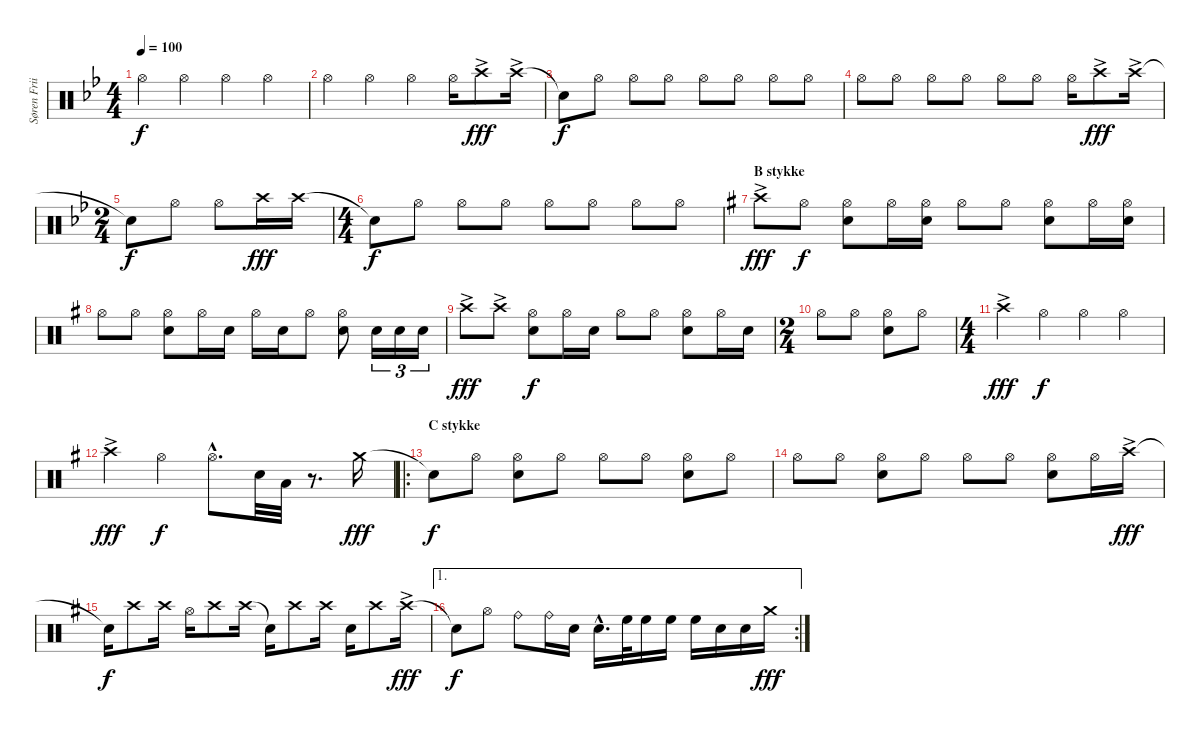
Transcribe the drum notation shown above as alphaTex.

\track ("Søren Friis (Drums)" "Søren Frii") {instrument percussion}
\staff {score}
\articulation defaults
\ts (4 4)
\tempo 100
\clef neutral
\ks bb "Hi-Hat (open)".4{dy f} "Hi-Hat (open)".4 "Hi-Hat (open)".4 "Hi-Hat (open)".4
|
"Hi-Hat (open)".4 "Hi-Hat (open)".4 "Hi-Hat (open)".4 "Hi-Hat (open)".16 "Crash high (hit)"{ac}.8{dy fff} "Crash high (hit)"{ac}.16 |
"Snare (hit)"{t}.8{dy f} "Hi-Hat (open)".8 "Hi-Hat (open)".8 "Hi-Hat (open)".8 "Hi-Hat (open)".8 "Hi-Hat (open)".8 "Hi-Hat (open)".8 "Hi-Hat (open)".8 |
"Hi-Hat (open)".8 "Hi-Hat (open)".8 "Hi-Hat (open)".8 "Hi-Hat (open)".8 "Hi-Hat (open)".8 "Hi-Hat (open)".8 "Hi-Hat (open)".16 "Crash high (hit)"{ac}.8{dy fff} "Crash high (hit)"{ac}.16 |
\ts (2 4)
"Snare (hit)"{t}.8{dy f} "Hi-Hat (open)".8 "Hi-Hat (open)".8 "Crash high (hit)".16{dy fff} "Crash high (hit)".16 |
\ts (4 4)
"Snare (hit)"{t}.8{dy f} "Hi-Hat (open)".8 "Hi-Hat (open)".8 "Hi-Hat (open)".8 "Hi-Hat (open)".8 "Hi-Hat (open)".8 "Hi-Hat (open)".8 "Hi-Hat (open)".8 |
\section ("" "B stykke")
\ks g "Crash high (hit)"{ac}.8{dy fff} "Hi-Hat (open)".8{dy f}
("Hi-Hat (open)" "Snare (hit) 2").8 "Hi-Hat (open)".16 ("Hi-Hat (open)" "Snare (hit) 2").16 "Hi-Hat (open)".8 "Hi-Hat (open)".8 ("Hi-Hat (open)" "Snare (hit) 2").8 "Hi-Hat (open)".16 ("Hi-Hat (open)" "Snare (hit) 2").16 |
"Hi-Hat (open)".8 "Hi-Hat (open)".8 ("Hi-Hat (open)" "Snare (hit) 2").8 "Hi-Hat (open)".16 "Snare (hit) 2".16 "Hi-Hat (open)".16 "Snare (hit) 2".16 "Hi-Hat (open)".8 ("Hi-Hat (open)" "Snare (hit) 2").8 "Snare (hit) 2".16{tu (3 2)} "Snare (hit) 2".16{tu (3 2)} "Snare (hit) 2".16{tu (3 2)} |
"Crash high (hit)"{ac}.8{dy fff} "Crash high (hit)"{ac}.8 ("Snare (hit) 2" "Hi-Hat (open)").8{dy f} "Hi-Hat (open)".16 "Snare (hit) 2".16 "Hi-Hat (open)".8 "Hi-Hat (open)".8 ("Snare (hit) 2" "Hi-Hat (open)").8 "Hi-Hat (open)".16 "Snare (hit) 2".16 |
\ts (2 4)
"Hi-Hat (open)".8 "Hi-Hat (open)".8 ("Hi-Hat (open)" "Snare (hit) 2").8 "Hi-Hat (open)".8 |
\ts (4 4)
"Crash high (hit)"{ac}.4{dy fff} "Hi-Hat (open)".4{dy f} "Hi-Hat (open)".4 "Hi-Hat (open)".4 |
"Crash high (hit)"{ac}.4{dy fff} "Hi-Hat (open)".4{dy f} "Hi-Hat (open)"{hac}.8{d} "Snare (hit) 2".32 "Low Tom (hit)".32 r.8{d} "Crash medium (hit)".16{dy fff} |
\ro
\section ("" "C stykke")
"Snare (hit)"{t}.8{dy f} "Hi-Hat (open)".8 ("Hi-Hat (open)" "Snare (hit) 2").8 "Hi-Hat (open)".8 "Hi-Hat (open)".8 "Hi-Hat (open)".8 ("Hi-Hat (open)" "Snare (hit) 2").8 "Hi-Hat (open)".8 |
"Hi-Hat (open)".8 "Hi-Hat (open)".8 ("Hi-Hat (open)" "Snare (hit) 2").8 "Hi-Hat (open)".8 "Hi-Hat (open)".8 "Hi-Hat (open)".8 ("Hi-Hat (open)" "Snare (hit) 2").8 "Hi-Hat (open)".16 "Crash high (hit)"{ac}.16{dy fff} |
"Snare (hit)"{t}.16{dy f} "Crash high (hit)".8 "Crash high (hit)".16 "Hi-Hat (open)".16 "Crash high (hit)".8 "Crash high (hit)".16 "Snare (hit)"{t}.16 "Crash high (hit)".8 "Crash high (hit)".16 "Snare (hit) 2".16 "Crash high (hit)".8 "Crash high (hit)"{ac}.16{dy fff} |
\ae 1
\rc 2 "Snare (hit)"{t}.8{dy f} "Hi-Hat (open)".8 "Ride (bell)".8 "Ride (bell)".16 "Snare (hit) 2".16 "Snare (hit) 2"{hac}.16{d} "High Floor Tom (hit)".32 "High Floor Tom (hit)".16 "High Floor Tom (hit)".16 "High Floor Tom (hit)".16 "Snare (hit) 2".16 "Snare (hit) 2".16 "Crash medium (hit)".16{dy fff}
